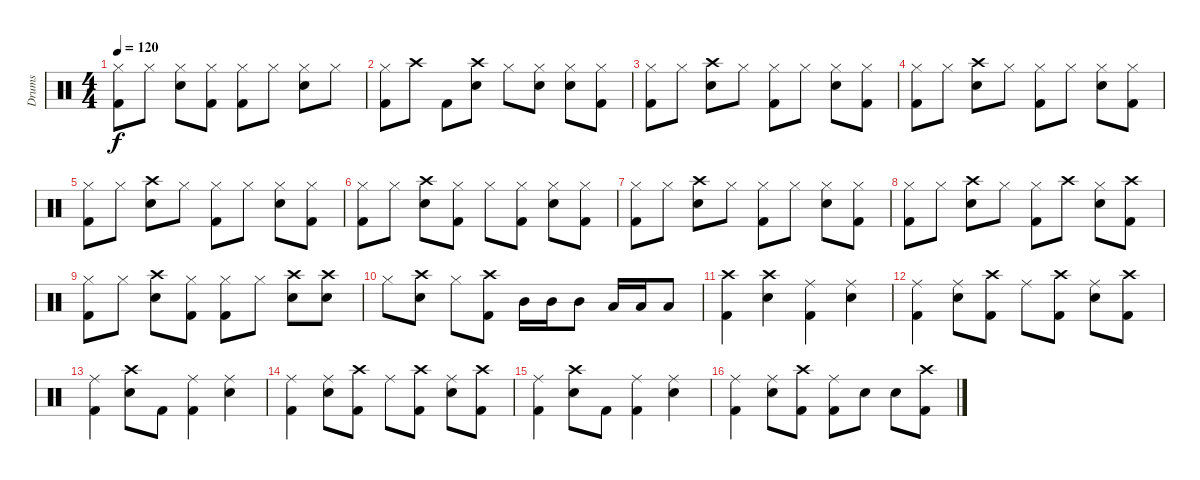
\track ("Drums" "Drums") {instrument percussion}
\staff {score}
\articulation defaults
\ts (4 4)
\tempo 120
\clef neutral
\ks c
("Hi-Hat (closed)" "Kick (hit) 2").8{dy f} "Hi-Hat (closed)".8 ("Hi-Hat (closed)" "Electric Snare (hit)").8 ("Hi-Hat (closed)" "Kick (hit) 2").8 ("Hi-Hat (closed)" "Kick (hit) 2").8 "Hi-Hat (closed)".8 ("Hi-Hat (closed)" "Electric Snare (hit)").8 "Hi-Hat (closed)".8 |
("Hi-Hat (closed)" "Kick (hit) 2").8 "Crash high (hit)".8 "Kick (hit) 2".8 ("Crash high (hit)" "Electric Snare (hit)").8 "Hi-Hat (closed)".8 ("Hi-Hat (closed)" "Electric Snare (hit)").8 ("Hi-Hat (closed)" "Electric Snare (hit)").8 ("Hi-Hat (closed)" "Kick (hit) 2").8 |
("Hi-Hat (closed)" "Kick (hit) 2").8 "Hi-Hat (closed)".8 ("Crash high (hit)" "Electric Snare (hit)").8 "Hi-Hat (closed)".8 ("Hi-Hat (closed)" "Kick (hit) 2").8 "Hi-Hat (closed)".8 ("Hi-Hat (closed)" "Electric Snare (hit)").8 ("Hi-Hat (closed)" "Kick (hit) 2").8 |
("Hi-Hat (closed)" "Kick (hit) 2").8 "Hi-Hat (closed)".8 ("Crash high (hit)" "Electric Snare (hit)").8 "Hi-Hat (closed)".8 ("Hi-Hat (closed)" "Kick (hit) 2").8 "Hi-Hat (closed)".8 ("Hi-Hat (closed)" "Electric Snare (hit)").8 ("Hi-Hat (closed)" "Kick (hit) 2").8 |
("Hi-Hat (closed)" "Kick (hit) 2").8 "Hi-Hat (closed)".8 ("Crash high (hit)" "Electric Snare (hit)").8 "Hi-Hat (closed)".8 ("Hi-Hat (closed)" "Kick (hit) 2").8 "Hi-Hat (closed)".8 ("Hi-Hat (closed)" "Electric Snare (hit)").8 ("Hi-Hat (closed)" "Kick (hit) 2").8 |
("Hi-Hat (closed)" "Kick (hit) 2").8 "Hi-Hat (closed)".8 ("Crash high (hit)" "Electric Snare (hit)").8 ("Hi-Hat (closed)" "Kick (hit) 2").8 "Hi-Hat (closed)".8 ("Hi-Hat (closed)" "Kick (hit) 2").8 ("Hi-Hat (closed)" "Electric Snare (hit)").8 ("Hi-Hat (closed)" "Kick (hit) 2").8 |
("Hi-Hat (closed)" "Kick (hit) 2").8 "Hi-Hat (closed)".8 ("Crash high (hit)" "Electric Snare (hit)").8 "Hi-Hat (closed)".8 ("Hi-Hat (closed)" "Kick (hit) 2").8 "Hi-Hat (closed)".8 ("Hi-Hat (closed)" "Electric Snare (hit)").8 ("Hi-Hat (closed)" "Kick (hit) 2").8 |
("Hi-Hat (closed)" "Kick (hit) 2").8 "Hi-Hat (closed)".8 ("Crash high (hit)" "Electric Snare (hit)").8 "Hi-Hat (closed)".8 ("Hi-Hat (closed)" "Kick (hit) 2").8 "Crash high (hit)".8 ("Hi-Hat (closed)" "Electric Snare (hit)").8 ("Crash high (hit)" "Kick (hit) 2").8 |
("Hi-Hat (closed)" "Kick (hit) 2").8 "Hi-Hat (closed)".8 ("Crash high (hit)" "Electric Snare (hit)").8 ("Hi-Hat (closed)" "Kick (hit) 2").8 ("Hi-Hat (closed)" "Kick (hit) 2").8 "Hi-Hat (closed)".8 ("Crash high (hit)" "Electric Snare (hit)").8 ("Crash high (hit)" "Electric Snare (hit)").8 |
"Hi-Hat (closed)".8 ("Crash high (hit)" "Electric Snare (hit)").8 "Hi-Hat (closed)".8 ("Crash high (hit)" "Kick (hit) 2").8 "Mid Tom (hit)".16 "Mid Tom (hit)".16 "Mid Tom (hit)".8 "Low Tom (hit)".16 "Low Tom (hit)".16 "Low Tom (hit)".8 |
("Crash high (hit)" "Kick (hit) 2").4 ("Crash high (hit)" "Electric Snare (hit)").4 ("Ride (middle)" "Kick (hit) 2").4 ("Ride (middle)" "Electric Snare (hit)").4 |
("Ride (middle)" "Kick (hit) 2").4 ("Ride (middle)" "Electric Snare (hit)").8 ("Crash high (hit)" "Kick (hit) 2").8 "Ride (middle)".8 ("Crash high (hit)" "Kick (hit) 2").8 ("Ride (middle)" "Electric Snare (hit)").8 ("Crash high (hit)" "Kick (hit) 2").8 |
("Ride (middle)" "Kick (hit) 2").4 ("Crash high (hit)" "Electric Snare (hit)").8 "Kick (hit) 2".8 ("Ride (middle)" "Kick (hit) 2").4 ("Ride (middle)" "Electric Snare (hit)").4 |
("Ride (middle)" "Kick (hit) 2").4 ("Ride (middle)" "Electric Snare (hit)").8 ("Crash high (hit)" "Kick (hit) 2").8 "Ride (middle)".8 ("Crash high (hit)" "Kick (hit) 2").8 ("Ride (middle)" "Electric Snare (hit)").8 ("Crash high (hit)" "Kick (hit) 2").8 |
("Ride (middle)" "Kick (hit) 2").4 ("Crash high (hit)" "Electric Snare (hit)").8 "Kick (hit) 2".8 ("Ride (middle)" "Kick (hit) 2").4 ("Ride (middle)" "Electric Snare (hit)").4 |
("Ride (middle)" "Kick (hit) 2").4 ("Ride (middle)" "Electric Snare (hit)").8 ("Crash high (hit)" "Kick (hit) 2").8 ("Ride (middle)" "Kick (hit) 2").8 "Electric Snare (hit)".8 "Electric Snare (hit)".8 ("Crash high (hit)" "Kick (hit) 2").8
